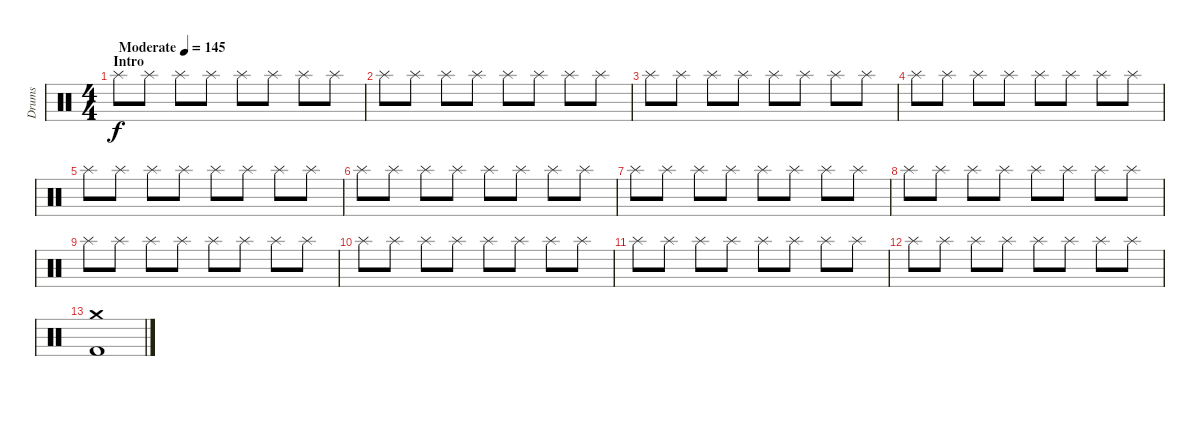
\track ("Drums" "Drums") {instrument percussion}
\staff {score}
\articulation defaults
\ts (4 4)
\section ("" "Intro")
\tempo (145 "Moderate")
\clef neutral
\ks c "Splash (hit)".8{dy f volume 2} "Splash (hit)".8{volume 6} "Splash (hit)".8 "Splash (hit)".8 "Splash (hit)".8 "Splash (hit)".8 "Splash (hit)".8 "Splash (hit)".8
|
"Splash (hit)".8 "Splash (hit)".8 "Splash (hit)".8 "Splash (hit)".8 "Splash (hit)".8{volume 1} "Splash (hit)".8 "Splash (hit)".8 "Splash (hit)".8 |
"Splash (hit)".8 "Splash (hit)".8 "Splash (hit)".8 "Splash (hit)".8 "Splash (hit)".8 "Splash (hit)".8 "Splash (hit)".8{volume 6} "Splash (hit)".8 |
"Splash (hit)".8 "Splash (hit)".8 "Splash (hit)".8 "Splash (hit)".8 "Splash (hit)".8 "Splash (hit)".8 "Splash (hit)".8 "Splash (hit)".8 |
"Splash (hit)".8 "Splash (hit)".8 "Splash (hit)".8 "Splash (hit)".8 "Splash (hit)".8{volume 2} "Splash (hit)".8 "Splash (hit)".8 "Splash (hit)".8 |
"Splash (hit)".8 "Splash (hit)".8{volume 6} "Splash (hit)".8 "Splash (hit)".8 "Splash (hit)".8 "Splash (hit)".8 "Splash (hit)".8 "Splash (hit)".8 |
"Splash (hit)".8 "Splash (hit)".8 "Splash (hit)".8 "Splash (hit)".8 "Splash (hit)".8 "Splash (hit)".8 "Splash (hit)".8 "Splash (hit)".8 |
"Splash (hit)".8 "Splash (hit)".8 "Splash (hit)".8 "Splash (hit)".8{volume 2} "Splash (hit)".8 "Splash (hit)".8 "Splash (hit)".8 "Splash (hit)".8 |
"Splash (hit)".8{volume 6} "Splash (hit)".8 "Splash (hit)".8 "Splash (hit)".8 "Splash (hit)".8 "Splash (hit)".8 "Splash (hit)".8 "Splash (hit)".8 |
"Splash (hit)".8 "Splash (hit)".8 "Splash (hit)".8 "Splash (hit)".8 "Splash (hit)".8{volume 2} "Splash (hit)".8 "Splash (hit)".8 "Splash (hit)".8 |
"Splash (hit)".8{volume 6} "Splash (hit)".8 "Splash (hit)".8 "Splash (hit)".8 "Splash (hit)".8 "Splash (hit)".8 "Splash (hit)".8 "Splash (hit)".8 |
"Splash (hit)".8 "Splash (hit)".8 "Splash (hit)".8 "Splash (hit)".8 "Splash (hit)".8 "Splash (hit)".8 "Splash (hit)".8 "Splash (hit)".8 |
("Crash medium (hit)" "Kick (hit) 2").1{volume 12}
